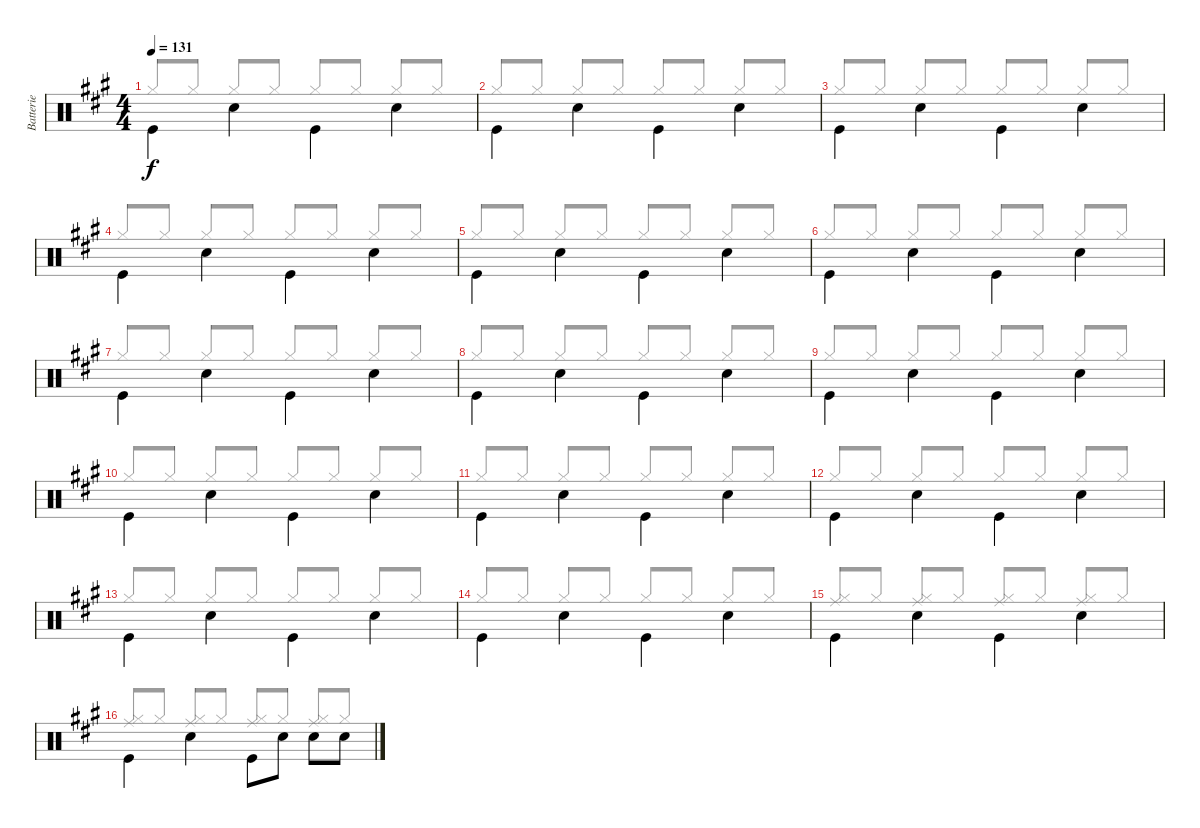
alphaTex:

\track ("Batterie" "Batterie") {instrument percussion}
\staff {score}
\articulation defaults
\voice
\ts (4 4)
\tempo 131
\clef neutral
\ks a "Kick (hit)".4{dy f beam Down} "Snare (hit) 2".4{beam Down} "Kick (hit)".4{beam Down} "Snare (hit) 2".4{beam Down}
|
"Kick (hit)".4{beam Down} "Snare (hit) 2".4{beam Down} "Kick (hit)".4{beam Down} "Snare (hit) 2".4{beam Down} |
"Kick (hit)".4{beam Down} "Snare (hit) 2".4{beam Down} "Kick (hit)".4{beam Down} "Snare (hit) 2".4{beam Down} |
"Kick (hit)".4{beam Down} "Snare (hit) 2".4{beam Down} "Kick (hit)".4{beam Down} "Snare (hit) 2".4{beam Down} |
"Kick (hit)".4{beam Down} "Snare (hit) 2".4{beam Down} "Kick (hit)".4{beam Down} "Snare (hit) 2".4{beam Down} |
"Kick (hit)".4{beam Down} "Snare (hit) 2".4{beam Down} "Kick (hit)".4{beam Down} "Snare (hit) 2".4{beam Down} |
"Kick (hit)".4{beam Down} "Snare (hit) 2".4{beam Down} "Kick (hit)".4{beam Down} "Snare (hit) 2".4{beam Down} |
"Kick (hit)".4{beam Down} "Snare (hit) 2".4{beam Down} "Kick (hit)".4{beam Down} "Snare (hit) 2".4{beam Down} |
"Kick (hit)".4{beam Down} "Snare (hit) 2".4{beam Down} "Kick (hit)".4{beam Down} "Snare (hit) 2".4{beam Down} |
"Kick (hit)".4{beam Down} "Snare (hit) 2".4{beam Down} "Kick (hit)".4{beam Down} "Snare (hit) 2".4{beam Down} |
"Kick (hit)".4{beam Down} "Snare (hit) 2".4{beam Down} "Kick (hit)".4{beam Down} "Snare (hit) 2".4{beam Down} |
"Kick (hit)".4{beam Down} "Snare (hit) 2".4{beam Down} "Kick (hit)".4{beam Down} "Snare (hit) 2".4{beam Down} |
"Kick (hit)".4{beam Down} "Snare (hit) 2".4{beam Down} "Kick (hit)".4{beam Down} "Snare (hit) 2".4{beam Down} |
"Kick (hit)".4{beam Down} "Snare (hit) 2".4{beam Down} "Kick (hit)".4{beam Down} "Snare (hit) 2".4{beam Down} |
"Kick (hit)".4{beam Down} "Snare (hit) 2".4{beam Down} "Kick (hit)".4{beam Down} "Snare (hit) 2".4{beam Down} |
"Kick (hit)".4{beam Down} "Snare (hit) 2".4{beam Down} "Kick (hit)".8{beam Down} "Snare (hit) 2".8{beam Down} "Snare (hit) 2".8{beam Down} "Snare (hit) 2".8{beam Down}
\voice
\clef neutral
\ottava regular
\simile none
\ks a "Hi-Hat (closed)".8{dy f beam Up} "Hi-Hat (closed)".8{beam Up} "Hi-Hat (closed)".8{beam Up} "Hi-Hat (closed)".8{beam Up} "Hi-Hat (closed)".8{beam Up} "Hi-Hat (closed)".8{beam Up} "Hi-Hat (closed)".8{beam Up} "Hi-Hat (closed)".8{beam Up}
|
"Hi-Hat (closed)".8{beam Up} "Hi-Hat (closed)".8{beam Up} "Hi-Hat (closed)".8{beam Up} "Hi-Hat (closed)".8{beam Up} "Hi-Hat (closed)".8{beam Up} "Hi-Hat (closed)".8{beam Up} "Hi-Hat (closed)".8{beam Up} "Hi-Hat (closed)".8{beam Up} |
"Hi-Hat (closed)".8{beam Up} "Hi-Hat (closed)".8{beam Up} "Hi-Hat (closed)".8{beam Up} "Hi-Hat (closed)".8{beam Up} "Hi-Hat (closed)".8{beam Up} "Hi-Hat (closed)".8{beam Up} "Hi-Hat (closed)".8{beam Up} "Hi-Hat (closed)".8{beam Up} |
"Hi-Hat (closed)".8{beam Up} "Hi-Hat (closed)".8{beam Up} "Hi-Hat (closed)".8{beam Up} "Hi-Hat (closed)".8{beam Up} "Hi-Hat (closed)".8{beam Up} "Hi-Hat (closed)".8{beam Up} "Hi-Hat (closed)".8{beam Up} "Hi-Hat (closed)".8{beam Up} |
"Hi-Hat (closed)".8{beam Up} "Hi-Hat (closed)".8{beam Up} "Hi-Hat (closed)".8{beam Up} "Hi-Hat (closed)".8{beam Up} "Hi-Hat (closed)".8{beam Up} "Hi-Hat (closed)".8{beam Up} "Hi-Hat (closed)".8{beam Up} "Hi-Hat (closed)".8{beam Up} |
"Hi-Hat (closed)".8{beam Up} "Hi-Hat (closed)".8{beam Up} "Hi-Hat (closed)".8{beam Up} "Hi-Hat (closed)".8{beam Up} "Hi-Hat (closed)".8{beam Up} "Hi-Hat (closed)".8{beam Up} "Hi-Hat (closed)".8{beam Up} "Hi-Hat (closed)".8{beam Up} |
"Hi-Hat (closed)".8{beam Up} "Hi-Hat (closed)".8{beam Up} "Hi-Hat (closed)".8{beam Up} "Hi-Hat (closed)".8{beam Up} "Hi-Hat (closed)".8{beam Up} "Hi-Hat (closed)".8{beam Up} "Hi-Hat (closed)".8{beam Up} "Hi-Hat (closed)".8{beam Up} |
"Hi-Hat (closed)".8{beam Up} "Hi-Hat (closed)".8{beam Up} "Hi-Hat (closed)".8{beam Up} "Hi-Hat (closed)".8{beam Up} "Hi-Hat (closed)".8{beam Up} "Hi-Hat (closed)".8{beam Up} "Hi-Hat (closed)".8{beam Up} "Hi-Hat (closed)".8{beam Up} |
"Hi-Hat (closed)".8{beam Up} "Hi-Hat (closed)".8{beam Up} "Hi-Hat (closed)".8{beam Up} "Hi-Hat (closed)".8{beam Up} "Hi-Hat (closed)".8{beam Up} "Hi-Hat (closed)".8{beam Up} "Hi-Hat (closed)".8{beam Up} "Hi-Hat (closed)".8{beam Up} |
"Hi-Hat (closed)".8{beam Up} "Hi-Hat (closed)".8{beam Up} "Hi-Hat (closed)".8{beam Up} "Hi-Hat (closed)".8{beam Up} "Hi-Hat (closed)".8{beam Up} "Hi-Hat (closed)".8{beam Up} "Hi-Hat (closed)".8{beam Up} "Hi-Hat (closed)".8{beam Up} |
"Hi-Hat (closed)".8{beam Up} "Hi-Hat (closed)".8{beam Up} "Hi-Hat (closed)".8{beam Up} "Hi-Hat (closed)".8{beam Up} "Hi-Hat (closed)".8{beam Up} "Hi-Hat (closed)".8{beam Up} "Hi-Hat (closed)".8{beam Up} "Hi-Hat (closed)".8{beam Up} |
"Hi-Hat (closed)".8{beam Up} "Hi-Hat (closed)".8{beam Up} "Hi-Hat (closed)".8{beam Up} "Hi-Hat (closed)".8{beam Up} "Hi-Hat (closed)".8{beam Up} "Hi-Hat (closed)".8{beam Up} "Hi-Hat (closed)".8{beam Up} "Hi-Hat (closed)".8{beam Up} |
"Hi-Hat (closed)".8{beam Up} "Hi-Hat (closed)".8{beam Up} "Hi-Hat (closed)".8{beam Up} "Hi-Hat (closed)".8{beam Up} "Hi-Hat (closed)".8{beam Up} "Hi-Hat (closed)".8{beam Up} "Hi-Hat (closed)".8{beam Up} "Hi-Hat (closed)".8{beam Up} |
"Hi-Hat (closed)".8{beam Up} "Hi-Hat (closed)".8{beam Up} "Hi-Hat (closed)".8{beam Up} "Hi-Hat (closed)".8{beam Up} "Hi-Hat (closed)".8{beam Up} "Hi-Hat (closed)".8{beam Up} "Hi-Hat (closed)".8{beam Up} "Hi-Hat (closed)".8{beam Up} |
("Ride (middle)" "Hi-Hat (closed)").8{beam Up} "Hi-Hat (closed)".8{beam Up} ("Ride (middle)" "Hi-Hat (closed)").8{beam Up} "Hi-Hat (closed)".8{beam Up} ("Ride (middle)" "Hi-Hat (closed)").8{beam Up} "Hi-Hat (closed)".8{beam Up} ("Ride (middle)" "Hi-Hat (closed)").8{beam Up} "Hi-Hat (closed)".8{beam Up} |
("Ride (middle)" "Hi-Hat (closed)").8{beam Up} "Hi-Hat (closed)".8{beam Up} ("Ride (middle)" "Hi-Hat (closed)").8{beam Up} "Hi-Hat (closed)".8{beam Up} ("Ride (middle)" "Hi-Hat (closed)").8{beam Up} "Hi-Hat (closed)".8{beam Up} ("Ride (middle)" "Hi-Hat (closed)").8{beam Up} "Hi-Hat (closed)".8{beam Up}
